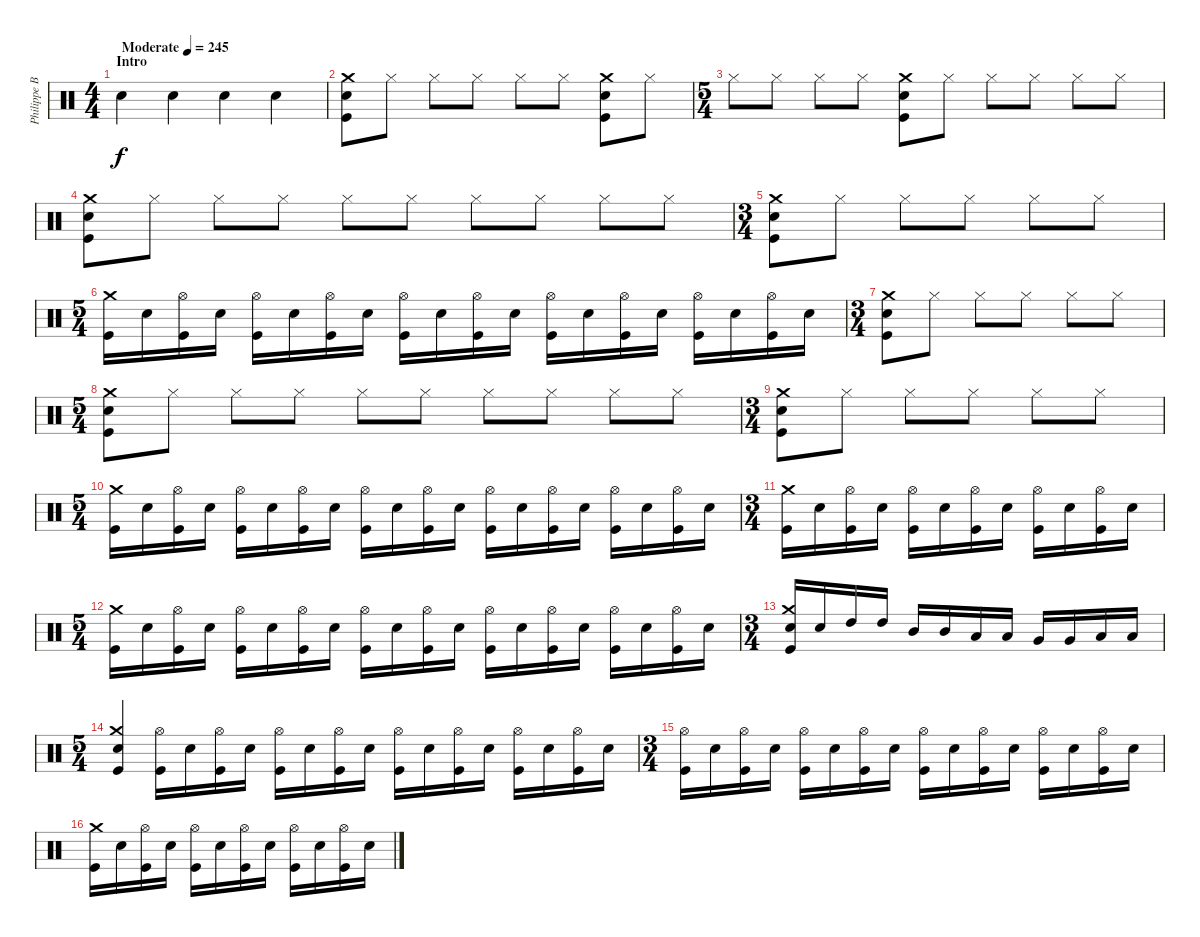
\track ("Philippe Boucher" "Philippe B") {instrument percussion}
\staff {score}
\articulation defaults
\ts (4 4)
\section ("" "Intro")
\tempo (245 "Moderate")
\clef neutral
\ks c "Electric Snare (hit)".4{dy f} "Electric Snare (hit)".4 "Electric Snare (hit)".4 "Electric Snare (hit)".4
|
("Crash medium (hit)" "Electric Snare (hit)" "Kick (hit)").8 "Hi-Hat (closed)".8 "Hi-Hat (closed)".8 "Hi-Hat (closed)".8 "Hi-Hat (closed)".8 "Hi-Hat (closed)".8 ("Crash medium (hit)" "Electric Snare (hit)" "Kick (hit)").8 "Hi-Hat (closed)".8 |
\ts (5 4)
"Hi-Hat (closed)".8 "Hi-Hat (closed)".8 "Hi-Hat (closed)".8 "Hi-Hat (closed)".8 ("Crash medium (hit)" "Electric Snare (hit)" "Kick (hit)").8 "Hi-Hat (closed)".8 "Hi-Hat (closed)".8 "Hi-Hat (closed)".8 "Hi-Hat (closed)".8 "Hi-Hat (closed)".8 |
("Crash medium (hit)" "Electric Snare (hit)" "Kick (hit)").8 "Hi-Hat (closed)".8 "Hi-Hat (closed)".8 "Hi-Hat (closed)".8 "Hi-Hat (closed)".8 "Hi-Hat (closed)".8 "Hi-Hat (closed)".8 "Hi-Hat (closed)".8 "Hi-Hat (closed)".8 "Hi-Hat (closed)".8 |
\ts (3 4)
("Crash medium (hit)" "Electric Snare (hit)" "Kick (hit)").8 "Hi-Hat (closed)".8 "Hi-Hat (closed)".8 "Hi-Hat (closed)".8 "Hi-Hat (closed)".8 "Hi-Hat (closed)".8 |
\ts (5 4)
("Crash medium (hit)" "Kick (hit)").16 "Electric Snare (hit)".16 ("Hi-Hat (open)" "Kick (hit)").16 "Electric Snare (hit)".16 ("Hi-Hat (open)" "Kick (hit)").16 "Electric Snare (hit)".16 ("Hi-Hat (open)" "Kick (hit)").16 "Electric Snare (hit)".16 ("Hi-Hat (open)" "Kick (hit)").16 "Electric Snare (hit)".16 ("Hi-Hat (open)" "Kick (hit)").16 "Electric Snare (hit)".16 ("Hi-Hat (open)" "Kick (hit)").16 "Electric Snare (hit)".16 ("Hi-Hat (open)" "Kick (hit)").16 "Electric Snare (hit)".16 ("Hi-Hat (open)" "Kick (hit)").16 "Electric Snare (hit)".16 ("Hi-Hat (open)" "Kick (hit)").16 "Electric Snare (hit)".16 |
\ts (3 4)
("Crash medium (hit)" "Electric Snare (hit)" "Kick (hit)").8 "Hi-Hat (closed)".8 "Hi-Hat (closed)".8 "Hi-Hat (closed)".8 "Hi-Hat (closed)".8 "Hi-Hat (closed)".8 |
\ts (5 4)
("Crash medium (hit)" "Electric Snare (hit)" "Kick (hit)").8 "Hi-Hat (closed)".8 "Hi-Hat (closed)".8 "Hi-Hat (closed)".8 "Hi-Hat (closed)".8 "Hi-Hat (closed)".8 "Hi-Hat (closed)".8 "Hi-Hat (closed)".8 "Hi-Hat (closed)".8 "Hi-Hat (closed)".8 |
\ts (3 4)
("Crash medium (hit)" "Electric Snare (hit)" "Kick (hit)").8 "Hi-Hat (closed)".8 "Hi-Hat (closed)".8 "Hi-Hat (closed)".8 "Hi-Hat (closed)".8 "Hi-Hat (closed)".8 |
\ts (5 4)
("Crash medium (hit)" "Kick (hit)").16 "Electric Snare (hit)".16 ("Hi-Hat (open)" "Kick (hit)").16 "Electric Snare (hit)".16 ("Hi-Hat (open)" "Kick (hit)").16 "Electric Snare (hit)".16 ("Hi-Hat (open)" "Kick (hit)").16 "Electric Snare (hit)".16 ("Hi-Hat (open)" "Kick (hit)").16 "Electric Snare (hit)".16 ("Hi-Hat (open)" "Kick (hit)").16 "Electric Snare (hit)".16 ("Hi-Hat (open)" "Kick (hit)").16 "Electric Snare (hit)".16 ("Hi-Hat (open)" "Kick (hit)").16 "Electric Snare (hit)".16 ("Hi-Hat (open)" "Kick (hit)").16 "Electric Snare (hit)".16 ("Hi-Hat (open)" "Kick (hit)").16 "Electric Snare (hit)".16 |
\ts (3 4)
("Crash medium (hit)" "Kick (hit)").16 "Electric Snare (hit)".16 ("Hi-Hat (open)" "Kick (hit)").16 "Electric Snare (hit)".16 ("Hi-Hat (open)" "Kick (hit)").16 "Electric Snare (hit)".16 ("Hi-Hat (open)" "Kick (hit)").16 "Electric Snare (hit)".16 ("Hi-Hat (open)" "Kick (hit)").16 "Electric Snare (hit)".16 ("Hi-Hat (open)" "Kick (hit)").16 "Electric Snare (hit)".16 |
\ts (5 4)
("Crash medium (hit)" "Kick (hit)").16 "Electric Snare (hit)".16 ("Hi-Hat (open)" "Kick (hit)").16 "Electric Snare (hit)".16 ("Hi-Hat (open)" "Kick (hit)").16 "Electric Snare (hit)".16 ("Hi-Hat (open)" "Kick (hit)").16 "Electric Snare (hit)".16 ("Hi-Hat (open)" "Kick (hit)").16 "Electric Snare (hit)".16 ("Hi-Hat (open)" "Kick (hit)").16 "Electric Snare (hit)".16 ("Hi-Hat (open)" "Kick (hit)").16 "Electric Snare (hit)".16 ("Hi-Hat (open)" "Kick (hit)").16 "Electric Snare (hit)".16 ("Hi-Hat (open)" "Kick (hit)").16 "Electric Snare (hit)".16 ("Hi-Hat (open)" "Kick (hit)").16 "Electric Snare (hit)".16 |
\ts (3 4)
("Crash medium (hit)" "Electric Snare (hit)" "Kick (hit)").16 "Electric Snare (hit)".16 "High Tom (hit)".16 "High Tom (hit)".16 "Mid Tom (hit)".16 "Mid Tom (hit)".16 "Low Tom (hit)".16 "Low Tom (hit)".16 "Very Low Tom (hit)".16 "Very Low Tom (hit)".16 "Low Floor Tom (hit)".16 "Low Floor Tom (hit)".16 |
\ts (5 4)
("Crash medium (hit)" "Electric Snare (hit)" "Kick (hit)").4 ("Hi-Hat (open)" "Kick (hit)").16 "Electric Snare (hit)".16 ("Hi-Hat (open)" "Kick (hit)").16 "Electric Snare (hit)".16 ("Hi-Hat (open)" "Kick (hit)").16 "Electric Snare (hit)".16 ("Hi-Hat (open)" "Kick (hit)").16 "Electric Snare (hit)".16 ("Hi-Hat (open)" "Kick (hit)").16 "Electric Snare (hit)".16 ("Hi-Hat (open)" "Kick (hit)").16 "Electric Snare (hit)".16 ("Hi-Hat (open)" "Kick (hit)").16 "Electric Snare (hit)".16 ("Hi-Hat (open)" "Kick (hit)").16 "Electric Snare (hit)".16 |
\ts (3 4)
("Hi-Hat (open)" "Kick (hit)").16 "Electric Snare (hit)".16 ("Hi-Hat (open)" "Kick (hit)").16 "Electric Snare (hit)".16 ("Hi-Hat (open)" "Kick (hit)").16 "Electric Snare (hit)".16 ("Hi-Hat (open)" "Kick (hit)").16 "Electric Snare (hit)".16 ("Hi-Hat (open)" "Kick (hit)").16 "Electric Snare (hit)".16 ("Hi-Hat (open)" "Kick (hit)").16 "Electric Snare (hit)".16 ("Hi-Hat (open)" "Kick (hit)").16 "Electric Snare (hit)".16 ("Hi-Hat (open)" "Kick (hit)").16 "Electric Snare (hit)".16 |
("Crash medium (hit)" "Kick (hit)").16 "Electric Snare (hit)".16 ("Hi-Hat (open)" "Kick (hit)").16 "Electric Snare (hit)".16 ("Hi-Hat (open)" "Kick (hit)").16 "Electric Snare (hit)".16 ("Hi-Hat (open)" "Kick (hit)").16 "Electric Snare (hit)".16 ("Hi-Hat (open)" "Kick (hit)").16 "Electric Snare (hit)".16 ("Hi-Hat (open)" "Kick (hit)").16 "Electric Snare (hit)".16
